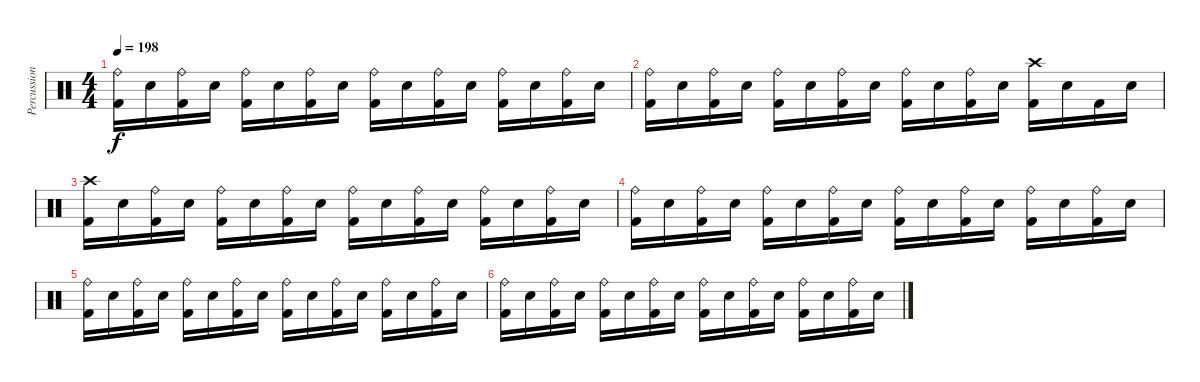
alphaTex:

\track ("Percussion" "Percussion") {instrument percussion}
\staff {score}
\articulation defaults
\ts (4 4)
\tempo 198
\clef neutral
\ks c
("Ride (bell)" "Kick (hit) 2").16{dy f} "Electric Snare (hit)".16 ("Ride (bell)" "Kick (hit) 2").16 "Electric Snare (hit)".16 ("Ride (bell)" "Kick (hit) 2").16 "Electric Snare (hit)".16 ("Ride (bell)" "Kick (hit) 2").16 "Electric Snare (hit)".16 ("Ride (bell)" "Kick (hit) 2").16 "Electric Snare (hit)".16 ("Ride (bell)" "Kick (hit) 2").16 "Electric Snare (hit)".16 ("Ride (bell)" "Kick (hit) 2").16 "Electric Snare (hit)".16 ("Ride (bell)" "Kick (hit) 2").16 "Electric Snare (hit)".16 |
("Ride (bell)" "Kick (hit) 2").16 "Electric Snare (hit)".16 ("Ride (bell)" "Kick (hit) 2").16 "Electric Snare (hit)".16 ("Ride (bell)" "Kick (hit) 2").16 "Electric Snare (hit)".16 ("Ride (bell)" "Kick (hit) 2").16 "Electric Snare (hit)".16 ("Ride (bell)" "Kick (hit) 2").16 "Electric Snare (hit)".16 ("Ride (bell)" "Kick (hit) 2").16 "Electric Snare (hit)".16 ("Crash high (hit)" "Kick (hit) 2").16 "Electric Snare (hit)".16 "Kick (hit) 2".16 "Electric Snare (hit)".16 |
("Crash high (hit)" "Kick (hit) 2").16 "Electric Snare (hit)".16 ("Ride (bell)" "Kick (hit) 2").16 "Electric Snare (hit)".16 ("Ride (bell)" "Kick (hit) 2").16 "Electric Snare (hit)".16 ("Ride (bell)" "Kick (hit) 2").16 "Electric Snare (hit)".16 ("Ride (bell)" "Kick (hit) 2").16 "Electric Snare (hit)".16 ("Ride (bell)" "Kick (hit) 2").16 "Electric Snare (hit)".16 ("Ride (bell)" "Kick (hit) 2").16 "Electric Snare (hit)".16 ("Ride (bell)" "Kick (hit) 2").16 "Electric Snare (hit)".16 |
("Ride (bell)" "Kick (hit) 2").16 "Electric Snare (hit)".16 ("Ride (bell)" "Kick (hit) 2").16 "Electric Snare (hit)".16 ("Ride (bell)" "Kick (hit) 2").16 "Electric Snare (hit)".16 ("Ride (bell)" "Kick (hit) 2").16 "Electric Snare (hit)".16 ("Ride (bell)" "Kick (hit) 2").16 "Electric Snare (hit)".16 ("Ride (bell)" "Kick (hit) 2").16 "Electric Snare (hit)".16 ("Ride (bell)" "Kick (hit) 2").16 "Electric Snare (hit)".16 ("Ride (bell)" "Kick (hit) 2").16 "Electric Snare (hit)".16 |
("Ride (bell)" "Kick (hit) 2").16 "Electric Snare (hit)".16 ("Ride (bell)" "Kick (hit) 2").16 "Electric Snare (hit)".16 ("Ride (bell)" "Kick (hit) 2").16 "Electric Snare (hit)".16 ("Ride (bell)" "Kick (hit) 2").16 "Electric Snare (hit)".16 ("Ride (bell)" "Kick (hit) 2").16 "Electric Snare (hit)".16 ("Ride (bell)" "Kick (hit) 2").16 "Electric Snare (hit)".16 ("Ride (bell)" "Kick (hit) 2").16 "Electric Snare (hit)".16 ("Ride (bell)" "Kick (hit) 2").16 "Electric Snare (hit)".16 |
("Ride (bell)" "Kick (hit) 2").16 "Electric Snare (hit)".16 ("Ride (bell)" "Kick (hit) 2").16 "Electric Snare (hit)".16 ("Ride (bell)" "Kick (hit) 2").16 "Electric Snare (hit)".16 ("Ride (bell)" "Kick (hit) 2").16 "Electric Snare (hit)".16 ("Ride (bell)" "Kick (hit) 2").16 "Electric Snare (hit)".16 ("Ride (bell)" "Kick (hit) 2").16 "Electric Snare (hit)".16 ("Ride (bell)" "Kick (hit) 2").16 "Electric Snare (hit)".16 ("Ride (bell)" "Kick (hit) 2").16 "Electric Snare (hit)".16
